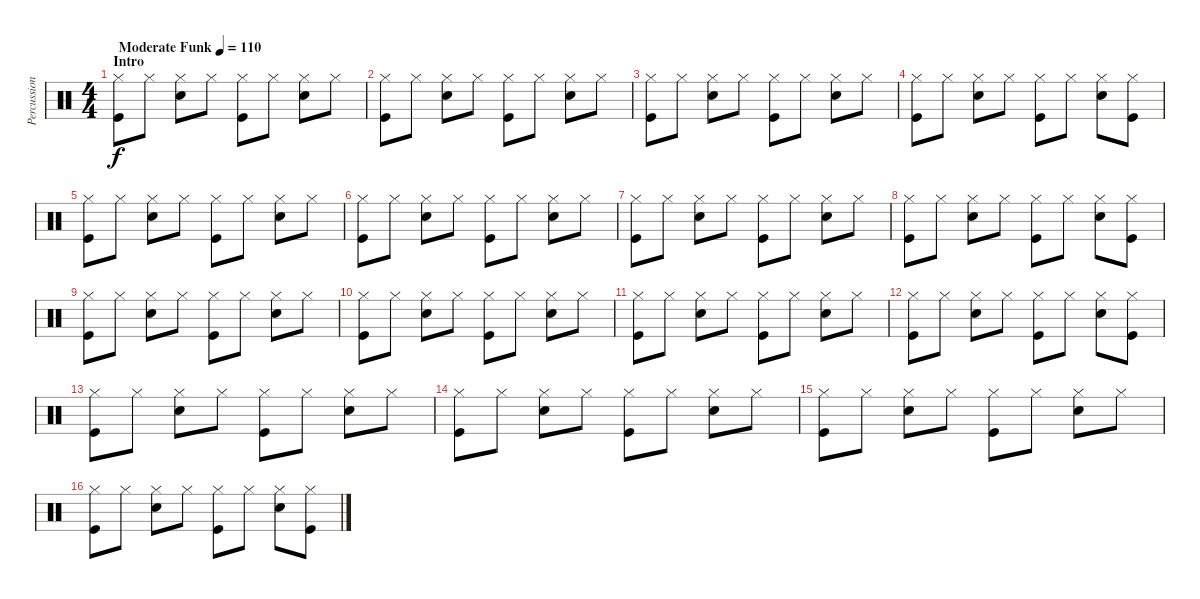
\track ("Percussion" "Percussion") {instrument percussion}
\staff {score}
\articulation defaults
\ts (4 4)
\section ("" "Intro")
\tempo (110 "Moderate Funk")
\clef neutral
\ks c
("Hi-Hat (closed)" "Kick (hit)").8{dy f} "Hi-Hat (closed)".8 ("Hi-Hat (closed)" "Snare (hit) 2").8 "Hi-Hat (closed)".8 ("Hi-Hat (closed)" "Kick (hit)").8 "Hi-Hat (closed)".8 ("Hi-Hat (closed)" "Snare (hit) 2").8 "Hi-Hat (closed)".8 |
("Hi-Hat (closed)" "Kick (hit)").8 "Hi-Hat (closed)".8 ("Hi-Hat (closed)" "Snare (hit) 2").8 "Hi-Hat (closed)".8 ("Hi-Hat (closed)" "Kick (hit)").8 "Hi-Hat (closed)".8 ("Hi-Hat (closed)" "Snare (hit) 2").8 "Hi-Hat (closed)".8 |
("Hi-Hat (closed)" "Kick (hit)").8 "Hi-Hat (closed)".8 ("Hi-Hat (closed)" "Snare (hit) 2").8 "Hi-Hat (closed)".8 ("Hi-Hat (closed)" "Kick (hit)").8 "Hi-Hat (closed)".8 ("Hi-Hat (closed)" "Snare (hit) 2").8 "Hi-Hat (closed)".8 |
("Hi-Hat (closed)" "Kick (hit)").8 "Hi-Hat (closed)".8 ("Hi-Hat (closed)" "Snare (hit) 2").8 "Hi-Hat (closed)".8 ("Hi-Hat (closed)" "Kick (hit)").8 "Hi-Hat (closed)".8 ("Hi-Hat (closed)" "Snare (hit) 2").8 ("Hi-Hat (closed)" "Kick (hit)").8 |
("Hi-Hat (closed)" "Kick (hit)").8 "Hi-Hat (closed)".8 ("Hi-Hat (closed)" "Snare (hit) 2").8 "Hi-Hat (closed)".8 ("Hi-Hat (closed)" "Kick (hit)").8 "Hi-Hat (closed)".8 ("Hi-Hat (closed)" "Snare (hit) 2").8 "Hi-Hat (closed)".8 |
("Hi-Hat (closed)" "Kick (hit)").8 "Hi-Hat (closed)".8 ("Hi-Hat (closed)" "Snare (hit) 2").8 "Hi-Hat (closed)".8 ("Hi-Hat (closed)" "Kick (hit)").8 "Hi-Hat (closed)".8 ("Hi-Hat (closed)" "Snare (hit) 2").8 "Hi-Hat (closed)".8 |
("Hi-Hat (closed)" "Kick (hit)").8 "Hi-Hat (closed)".8 ("Hi-Hat (closed)" "Snare (hit) 2").8 "Hi-Hat (closed)".8 ("Hi-Hat (closed)" "Kick (hit)").8 "Hi-Hat (closed)".8 ("Hi-Hat (closed)" "Snare (hit) 2").8 "Hi-Hat (closed)".8 |
("Hi-Hat (closed)" "Kick (hit)").8 "Hi-Hat (closed)".8 ("Hi-Hat (closed)" "Snare (hit) 2").8 "Hi-Hat (closed)".8 ("Hi-Hat (closed)" "Kick (hit)").8 "Hi-Hat (closed)".8 ("Hi-Hat (closed)" "Snare (hit) 2").8 ("Hi-Hat (closed)" "Kick (hit)").8 |
("Hi-Hat (closed)" "Kick (hit)").8 "Hi-Hat (closed)".8 ("Hi-Hat (closed)" "Snare (hit) 2").8 "Hi-Hat (closed)".8 ("Hi-Hat (closed)" "Kick (hit)").8 "Hi-Hat (closed)".8 ("Hi-Hat (closed)" "Snare (hit) 2").8 "Hi-Hat (closed)".8 |
("Hi-Hat (closed)" "Kick (hit)").8 "Hi-Hat (closed)".8 ("Hi-Hat (closed)" "Snare (hit) 2").8 "Hi-Hat (closed)".8 ("Hi-Hat (closed)" "Kick (hit)").8 "Hi-Hat (closed)".8 ("Hi-Hat (closed)" "Snare (hit) 2").8 "Hi-Hat (closed)".8 |
("Hi-Hat (closed)" "Kick (hit)").8 "Hi-Hat (closed)".8 ("Hi-Hat (closed)" "Snare (hit) 2").8 "Hi-Hat (closed)".8 ("Hi-Hat (closed)" "Kick (hit)").8 "Hi-Hat (closed)".8 ("Hi-Hat (closed)" "Snare (hit) 2").8 "Hi-Hat (closed)".8 |
("Hi-Hat (closed)" "Kick (hit)").8 "Hi-Hat (closed)".8 ("Hi-Hat (closed)" "Snare (hit) 2").8 "Hi-Hat (closed)".8 ("Hi-Hat (closed)" "Kick (hit)").8 "Hi-Hat (closed)".8 ("Hi-Hat (closed)" "Snare (hit) 2").8 ("Hi-Hat (closed)" "Kick (hit)").8 |
("Hi-Hat (closed)" "Kick (hit)").8 "Hi-Hat (closed)".8 ("Hi-Hat (closed)" "Snare (hit) 2").8 "Hi-Hat (closed)".8 ("Hi-Hat (closed)" "Kick (hit)").8 "Hi-Hat (closed)".8 ("Hi-Hat (closed)" "Snare (hit) 2").8 "Hi-Hat (closed)".8 |
("Hi-Hat (closed)" "Kick (hit)").8 "Hi-Hat (closed)".8 ("Hi-Hat (closed)" "Snare (hit) 2").8 "Hi-Hat (closed)".8 ("Hi-Hat (closed)" "Kick (hit)").8 "Hi-Hat (closed)".8 ("Hi-Hat (closed)" "Snare (hit) 2").8 "Hi-Hat (closed)".8 |
("Hi-Hat (closed)" "Kick (hit)").8 "Hi-Hat (closed)".8 ("Hi-Hat (closed)" "Snare (hit) 2").8 "Hi-Hat (closed)".8 ("Hi-Hat (closed)" "Kick (hit)").8 "Hi-Hat (closed)".8 ("Hi-Hat (closed)" "Snare (hit) 2").8 "Hi-Hat (closed)".8 |
("Hi-Hat (closed)" "Kick (hit)").8 "Hi-Hat (closed)".8 ("Hi-Hat (closed)" "Snare (hit) 2").8 "Hi-Hat (closed)".8 ("Hi-Hat (closed)" "Kick (hit)").8 "Hi-Hat (closed)".8 ("Hi-Hat (closed)" "Snare (hit) 2").8 ("Hi-Hat (closed)" "Kick (hit)").8
